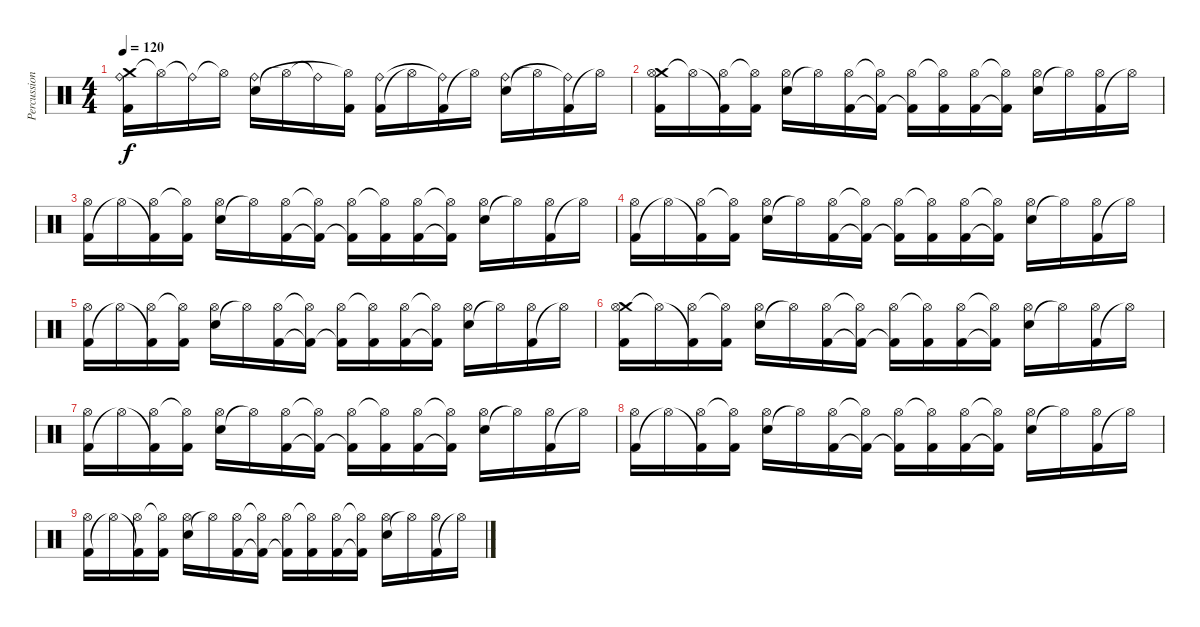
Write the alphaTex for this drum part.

\track ("Percussions" "Percussion") {instrument percussion}
\staff {score}
\articulation defaults
\ts (4 4)
\tempo 120
\clef neutral
\ks c
("Crash medium (hit)" "Kick (hit) 2" "Ride (bell)").16{dy f} "Hi-Hat (open)"{t}.16 "Ride (bell)"{t}.16 "Hi-Hat (open)"{t}.16 ("Electric Snare (hit)" "Ride (bell)").16 "Hi-Hat (open)"{t}.16 "Ride (bell)"{t}.16 ("Kick (hit) 2" "Hi-Hat (open)"{t}).16 ("Kick (hit) 2" "Ride (bell)").16 "Hi-Hat (open)"{t}.16 ("Kick (hit) 2" "Ride (bell)"{t}).16 "Hi-Hat (open)"{t}.16 ("Electric Snare (hit)" "Ride (bell)").16 "Hi-Hat (open)"{t}.16 ("Kick (hit) 2" "Ride (bell)"{t}).16 "Hi-Hat (open)"{t}.16 |
("Crash medium (hit)" "Kick (hit) 2" "Hi-Hat (open)").16 "Hi-Hat (open)"{t}.16 ("Kick (hit) 2"{t} "Hi-Hat (open)").16 ("Kick (hit) 2" "Hi-Hat (open)"{t}).16 ("Electric Snare (hit)" "Hi-Hat (open)").16 "Hi-Hat (open)"{t}.16 ("Kick (hit) 2" "Hi-Hat (open)").16 ("Kick (hit) 2"{t} "Hi-Hat (open)"{t}).16 ("Kick (hit) 2"{t} "Hi-Hat (open)").16 ("Kick (hit) 2" "Hi-Hat (open)"{t}).16 ("Kick (hit) 2" "Hi-Hat (open)").16 ("Kick (hit) 2"{t} "Hi-Hat (open)"{t}).16 ("Electric Snare (hit)" "Hi-Hat (open)").16 "Hi-Hat (open)"{t}.16 ("Kick (hit) 2" "Hi-Hat (open)").16 "Hi-Hat (open)"{t}.16 |
("Kick (hit) 2" "Hi-Hat (open)").16 "Hi-Hat (open)"{t}.16 ("Kick (hit) 2"{t} "Hi-Hat (open)").16 ("Kick (hit) 2" "Hi-Hat (open)"{t}).16 ("Electric Snare (hit)" "Hi-Hat (open)").16 "Hi-Hat (open)"{t}.16 ("Kick (hit) 2" "Hi-Hat (open)").16 ("Kick (hit) 2"{t} "Hi-Hat (open)"{t}).16 ("Kick (hit) 2"{t} "Hi-Hat (open)").16 ("Kick (hit) 2" "Hi-Hat (open)"{t}).16 ("Kick (hit) 2" "Hi-Hat (open)").16 ("Kick (hit) 2"{t} "Hi-Hat (open)"{t}).16 ("Electric Snare (hit)" "Hi-Hat (open)").16 "Hi-Hat (open)"{t}.16 ("Kick (hit) 2" "Hi-Hat (open)").16 "Hi-Hat (open)"{t}.16 |
("Kick (hit) 2" "Hi-Hat (open)").16 "Hi-Hat (open)"{t}.16 ("Kick (hit) 2"{t} "Hi-Hat (open)").16 ("Kick (hit) 2" "Hi-Hat (open)"{t}).16 ("Electric Snare (hit)" "Hi-Hat (open)").16 "Hi-Hat (open)"{t}.16 ("Kick (hit) 2" "Hi-Hat (open)").16 ("Kick (hit) 2"{t} "Hi-Hat (open)"{t}).16 ("Kick (hit) 2"{t} "Hi-Hat (open)").16 ("Kick (hit) 2" "Hi-Hat (open)"{t}).16 ("Kick (hit) 2" "Hi-Hat (open)").16 ("Kick (hit) 2"{t} "Hi-Hat (open)"{t}).16 ("Electric Snare (hit)" "Hi-Hat (open)").16 "Hi-Hat (open)"{t}.16 ("Kick (hit) 2" "Hi-Hat (open)").16 "Hi-Hat (open)"{t}.16 |
("Kick (hit) 2" "Hi-Hat (open)").16 "Hi-Hat (open)"{t}.16 ("Kick (hit) 2"{t} "Hi-Hat (open)").16 ("Kick (hit) 2" "Hi-Hat (open)"{t}).16 ("Electric Snare (hit)" "Hi-Hat (open)").16 "Hi-Hat (open)"{t}.16 ("Kick (hit) 2" "Hi-Hat (open)").16 ("Kick (hit) 2"{t} "Hi-Hat (open)"{t}).16 ("Kick (hit) 2"{t} "Hi-Hat (open)").16 ("Kick (hit) 2" "Hi-Hat (open)"{t}).16 ("Kick (hit) 2" "Hi-Hat (open)").16 ("Kick (hit) 2"{t} "Hi-Hat (open)"{t}).16 ("Electric Snare (hit)" "Hi-Hat (open)").16 "Hi-Hat (open)"{t}.16 ("Kick (hit) 2" "Hi-Hat (open)").16 "Hi-Hat (open)"{t}.16 |
("Crash medium (hit)" "Kick (hit) 2" "Hi-Hat (open)").16 "Hi-Hat (open)"{t}.16 ("Kick (hit) 2"{t} "Hi-Hat (open)").16 ("Kick (hit) 2" "Hi-Hat (open)"{t}).16 ("Electric Snare (hit)" "Hi-Hat (open)").16 "Hi-Hat (open)"{t}.16 ("Kick (hit) 2" "Hi-Hat (open)").16 ("Kick (hit) 2"{t} "Hi-Hat (open)"{t}).16 ("Kick (hit) 2"{t} "Hi-Hat (open)").16 ("Kick (hit) 2" "Hi-Hat (open)"{t}).16 ("Kick (hit) 2" "Hi-Hat (open)").16 ("Kick (hit) 2"{t} "Hi-Hat (open)"{t}).16 ("Electric Snare (hit)" "Hi-Hat (open)").16 "Hi-Hat (open)"{t}.16 ("Kick (hit) 2" "Hi-Hat (open)").16 "Hi-Hat (open)"{t}.16 |
("Kick (hit) 2" "Hi-Hat (open)").16 "Hi-Hat (open)"{t}.16 ("Kick (hit) 2"{t} "Hi-Hat (open)").16 ("Kick (hit) 2" "Hi-Hat (open)"{t}).16 ("Electric Snare (hit)" "Hi-Hat (open)").16 "Hi-Hat (open)"{t}.16 ("Kick (hit) 2" "Hi-Hat (open)").16 ("Kick (hit) 2"{t} "Hi-Hat (open)"{t}).16 ("Kick (hit) 2"{t} "Hi-Hat (open)").16 ("Kick (hit) 2" "Hi-Hat (open)"{t}).16 ("Kick (hit) 2" "Hi-Hat (open)").16 ("Kick (hit) 2"{t} "Hi-Hat (open)"{t}).16 ("Electric Snare (hit)" "Hi-Hat (open)").16 "Hi-Hat (open)"{t}.16 ("Kick (hit) 2" "Hi-Hat (open)").16 "Hi-Hat (open)"{t}.16 |
("Kick (hit) 2" "Hi-Hat (open)").16 "Hi-Hat (open)"{t}.16 ("Kick (hit) 2"{t} "Hi-Hat (open)").16 ("Kick (hit) 2" "Hi-Hat (open)"{t}).16 ("Electric Snare (hit)" "Hi-Hat (open)").16 "Hi-Hat (open)"{t}.16 ("Kick (hit) 2" "Hi-Hat (open)").16 ("Kick (hit) 2"{t} "Hi-Hat (open)"{t}).16 ("Kick (hit) 2"{t} "Hi-Hat (open)").16 ("Kick (hit) 2" "Hi-Hat (open)"{t}).16 ("Kick (hit) 2" "Hi-Hat (open)").16 ("Kick (hit) 2"{t} "Hi-Hat (open)"{t}).16 ("Electric Snare (hit)" "Hi-Hat (open)").16 "Hi-Hat (open)"{t}.16 ("Kick (hit) 2" "Hi-Hat (open)").16 "Hi-Hat (open)"{t}.16 |
("Kick (hit) 2" "Hi-Hat (open)").16 "Hi-Hat (open)"{t}.16 ("Kick (hit) 2"{t} "Hi-Hat (open)").16 ("Kick (hit) 2" "Hi-Hat (open)"{t}).16 ("Electric Snare (hit)" "Hi-Hat (open)").16 "Hi-Hat (open)"{t}.16 ("Kick (hit) 2" "Hi-Hat (open)").16 ("Kick (hit) 2"{t} "Hi-Hat (open)"{t}).16 ("Kick (hit) 2"{t} "Hi-Hat (open)").16 ("Kick (hit) 2" "Hi-Hat (open)"{t}).16 ("Kick (hit) 2" "Hi-Hat (open)").16 ("Kick (hit) 2"{t} "Hi-Hat (open)"{t}).16 ("Electric Snare (hit)" "Hi-Hat (open)").16 "Hi-Hat (open)"{t}.16 ("Kick (hit) 2" "Hi-Hat (open)").16 "Hi-Hat (open)"{t}.16
